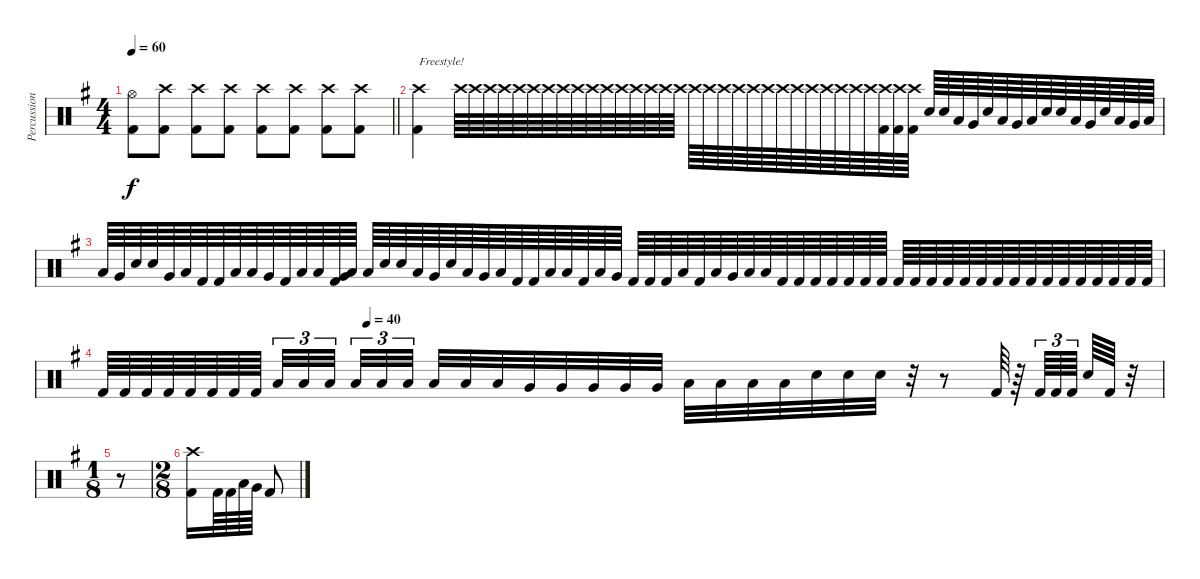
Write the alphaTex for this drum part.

\track ("Percussion" "Percussion") {instrument percussion}
\staff {score}
\articulation defaults
\ts (4 4)
\tempo 60
\clef neutral
\barLineRight lightlight
\ks eminor
("Hi-Hat (open)" "Kick (hit) 2").8{dy f} ("Crash high (hit)" "Kick (hit) 2").8 ("Crash high (hit)" "Kick (hit) 2").8 ("Crash high (hit)" "Kick (hit) 2").8 ("Crash high (hit)" "Kick (hit) 2").8 ("Crash high (hit)" "Kick (hit) 2").8 ("Crash high (hit)" "Kick (hit) 2").8 ("Crash high (hit)" "Kick (hit) 2").8 |
("Crash high (hit)" "Kick (hit) 2").4{txt "Freestyle!"} "Crash high (hit)".64{volume 11} "Crash high (hit)".64 "Crash high (hit)".64 "Crash high (hit)".64 "Crash high (hit)".64 "Crash high (hit)".64 "Crash high (hit)".64 "Crash high (hit)".64 "Crash high (hit)".64 "Crash high (hit)".64 "Crash high (hit)".64 "Crash high (hit)".64 "Crash high (hit)".64 "Crash high (hit)".64 "Crash high (hit)".64 "Crash high (hit)".64 "Crash high (hit)".64 "Crash high (hit)".64 "Crash high (hit)".64 "Crash high (hit)".64 "Crash high (hit)".64 "Crash high (hit)".64 "Crash high (hit)".64 "Crash high (hit)".64 "Crash high (hit)".64 "Crash high (hit)".64 "Crash high (hit)".64 "Crash high (hit)".64 "Crash high (hit)".64 ("Crash high (hit)" "Kick (hit) 2").64 ("Crash high (hit)" "Kick (hit) 2").64 ("Crash high (hit)" "Kick (hit) 2").64 "Electric Snare (hit)".64 "Electric Snare (hit)".64 "Low Tom (hit)".64 "Very Low Tom (hit)".64 "Electric Snare (hit)".64 "Low Tom (hit)".64 "Very Low Tom (hit)".64 "Low Floor Tom (hit)".64 "Electric Snare (hit)".64 "Electric Snare (hit)".64 "Low Tom (hit)".64 "Very Low Tom (hit)".64 "Electric Snare (hit)".64 "Low Tom (hit)".64 "Very Low Tom (hit)".64 "Low Floor Tom (hit)".64 |
"Low Tom (hit)".64 "Very Low Tom (hit)".64 "Electric Snare (hit)".64 "Electric Snare (hit)".64 "Very Low Tom (hit)".64 "Low Floor Tom (hit)".64 "Kick (hit) 2".64 "Kick (hit) 2".64 "Low Floor Tom (hit)".64 "Low Tom (hit)".64 "Very Low Tom (hit)".64 "Kick (hit) 2".64 "Low Floor Tom (hit)".64 "Low Tom (hit)".64 ("Very Low Tom (hit)" "Kick (hit) 2").64 "Low Tom (hit)".64 "Low Floor Tom (hit)".64 "Electric Snare (hit)".64 "Electric Snare (hit)".64 "Low Tom (hit)".64 "Very Low Tom (hit)".64 "Electric Snare (hit)".64 "Low Tom (hit)".64 "Very Low Tom (hit)".64 "Low Floor Tom (hit)".64 "Kick (hit) 2".64 "Kick (hit) 2".64 "Low Floor Tom (hit)".64 "Low Tom (hit)".64 "Kick (hit) 2".64 "Low Tom (hit)".64 "Very Low Tom (hit)".64 "Kick (hit) 2".64 "Kick (hit) 2".64 "Kick (hit) 2".64 "Low Tom (hit)".64 "Kick (hit) 2".64 "Low Tom (hit)".64 "Very Low Tom (hit)".64 "Low Floor Tom (hit)".64 "Low Floor Tom (hit)".64 "Kick (hit) 2".64 "Kick (hit) 2".64 "Kick (hit) 2".64 "Kick (hit) 2".64 "Kick (hit) 2".64 "Kick (hit) 2".64 "Kick (hit) 2".64 "Kick (hit) 2".64 "Kick (hit) 2".64 "Kick (hit) 2".64 "Kick (hit) 2".64 "Kick (hit) 2".64 "Kick (hit) 2".64 "Kick (hit) 2".64 "Kick (hit) 2".64 "Kick (hit) 2".64 "Kick (hit) 2".64 "Kick (hit) 2".64 "Kick (hit) 2".64 "Kick (hit) 2".64 "Kick (hit) 2".64 "Kick (hit) 2".64 "Kick (hit) 2".64 |
\tempo (40 0.25)
"Kick (hit) 2".64 "Kick (hit) 2".64 "Kick (hit) 2".64 "Kick (hit) 2".64 "Kick (hit) 2".64 "Kick (hit) 2".64 "Kick (hit) 2".64 "Kick (hit) 2".64{beam splitsecondary} "Low Floor Tom (hit)".32{tu (3 2)} "Low Floor Tom (hit)".32{tu (3 2)} "Low Floor Tom (hit)".32{tu (3 2) beam splitsecondary} "Low Floor Tom (hit)".32{tu (3 2)} "Low Floor Tom (hit)".32{tu (3 2)} "Low Floor Tom (hit)".32{tu (3 2)} "Low Floor Tom (hit)".32 "Low Floor Tom (hit)".32 "Low Floor Tom (hit)".32 "Very Low Tom (hit)".32 "Very Low Tom (hit)".32 "Very Low Tom (hit)".32 "Very Low Tom (hit)".32 "Very Low Tom (hit)".32 "Low Tom (hit)".32 "Low Tom (hit)".32 "Low Tom (hit)".32 "Low Tom (hit)".32 "Electric Snare (hit)".32 "Electric Snare (hit)".32 "Electric Snare (hit)".32 r.32 r.8 "Kick (hit) 2".64 r.64 "Kick (hit) 2".64{tu (3 2)} "Kick (hit) 2".64{tu (3 2)} "Kick (hit) 2".64{tu (3 2) beam splitsecondary} "Electric Snare (hit)".64 "Kick (hit) 2".64 r.32 |
\ts (1 8)
r.8 |
\ts (2 8)
("Crash high (hit)" "Kick (hit) 2").16 "Kick (hit) 2".64 "Kick (hit) 2".64 "Low Floor Tom (hit)".64 "Very Low Tom (hit)".64 "Kick (hit) 2".8
